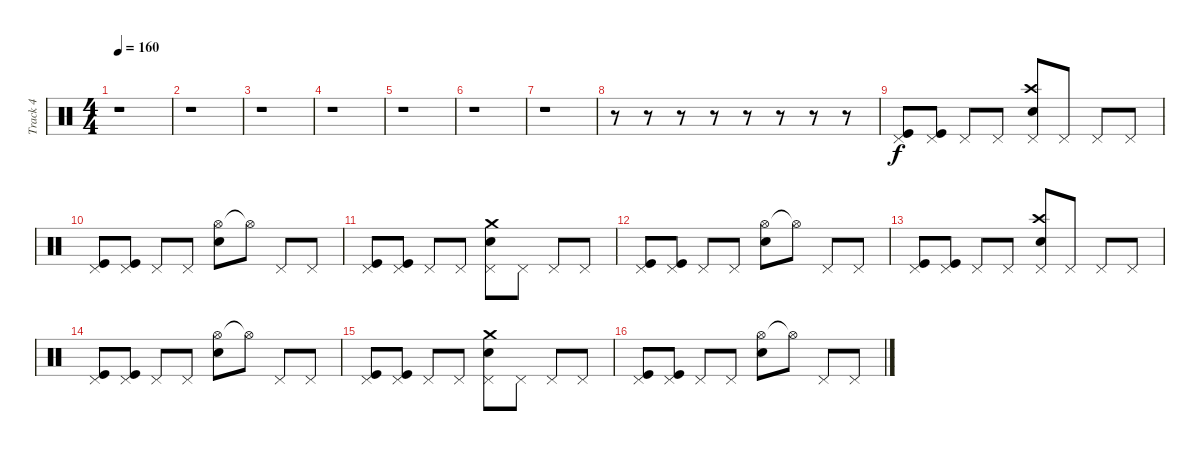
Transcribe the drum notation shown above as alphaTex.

\track ("Track 4" "Track 4") {instrument percussion}
\staff {score}
\articulation defaults
\ts (4 4)
\tempo 160
\clef neutral
\ks c
r.1{dy f} |
r.1 |
r.1 |
r.1 |
r.1 |
r.1 |
r.1 |
r.8 r.8 r.8 r.8 r.8 r.8 r.8 r.8 |
("Pedal Hi-Hat (hit)" "Kick (hit)").8 ("Pedal Hi-Hat (hit)" "Kick (hit)").8 "Pedal Hi-Hat (hit)".8 "Pedal Hi-Hat (hit)".8 ("Crash high (hit)" "Pedal Hi-Hat (hit)" "Electric Snare (hit)").8 "Pedal Hi-Hat (hit)".8 "Pedal Hi-Hat (hit)".8 "Pedal Hi-Hat (hit)".8 |
("Pedal Hi-Hat (hit)" "Kick (hit)").8 ("Pedal Hi-Hat (hit)" "Kick (hit)").8 "Pedal Hi-Hat (hit)".8 "Pedal Hi-Hat (hit)".8 ("Hi-Hat (open)" "Electric Snare (hit)").8 "Hi-Hat (open)"{t}.8 "Pedal Hi-Hat (hit)".8 "Pedal Hi-Hat (hit)".8 |
("Pedal Hi-Hat (hit)" "Kick (hit)").8 ("Pedal Hi-Hat (hit)" "Kick (hit)").8 "Pedal Hi-Hat (hit)".8 "Pedal Hi-Hat (hit)".8 ("Crash medium (hit)" "Pedal Hi-Hat (hit)" "Electric Snare (hit)").8 "Pedal Hi-Hat (hit)".8 "Pedal Hi-Hat (hit)".8 "Pedal Hi-Hat (hit)".8 |
("Pedal Hi-Hat (hit)" "Kick (hit)").8 ("Pedal Hi-Hat (hit)" "Kick (hit)").8 "Pedal Hi-Hat (hit)".8 "Pedal Hi-Hat (hit)".8 ("Hi-Hat (open)" "Electric Snare (hit)").8 "Hi-Hat (open)"{t}.8 "Pedal Hi-Hat (hit)".8 "Pedal Hi-Hat (hit)".8 |
("Pedal Hi-Hat (hit)" "Kick (hit)").8 ("Pedal Hi-Hat (hit)" "Kick (hit)").8 "Pedal Hi-Hat (hit)".8 "Pedal Hi-Hat (hit)".8 ("Crash high (hit)" "Pedal Hi-Hat (hit)" "Electric Snare (hit)").8 "Pedal Hi-Hat (hit)".8 "Pedal Hi-Hat (hit)".8 "Pedal Hi-Hat (hit)".8 |
("Pedal Hi-Hat (hit)" "Kick (hit)").8 ("Pedal Hi-Hat (hit)" "Kick (hit)").8 "Pedal Hi-Hat (hit)".8 "Pedal Hi-Hat (hit)".8 ("Hi-Hat (open)" "Electric Snare (hit)").8 "Hi-Hat (open)"{t}.8 "Pedal Hi-Hat (hit)".8 "Pedal Hi-Hat (hit)".8 |
("Pedal Hi-Hat (hit)" "Kick (hit)").8 ("Pedal Hi-Hat (hit)" "Kick (hit)").8 "Pedal Hi-Hat (hit)".8 "Pedal Hi-Hat (hit)".8 ("Crash medium (hit)" "Pedal Hi-Hat (hit)" "Electric Snare (hit)").8 "Pedal Hi-Hat (hit)".8 "Pedal Hi-Hat (hit)".8 "Pedal Hi-Hat (hit)".8 |
("Pedal Hi-Hat (hit)" "Kick (hit)").8 ("Pedal Hi-Hat (hit)" "Kick (hit)").8 "Pedal Hi-Hat (hit)".8 "Pedal Hi-Hat (hit)".8 ("Hi-Hat (open)" "Electric Snare (hit)").8 "Hi-Hat (open)"{t}.8 "Pedal Hi-Hat (hit)".8 "Pedal Hi-Hat (hit)".8
